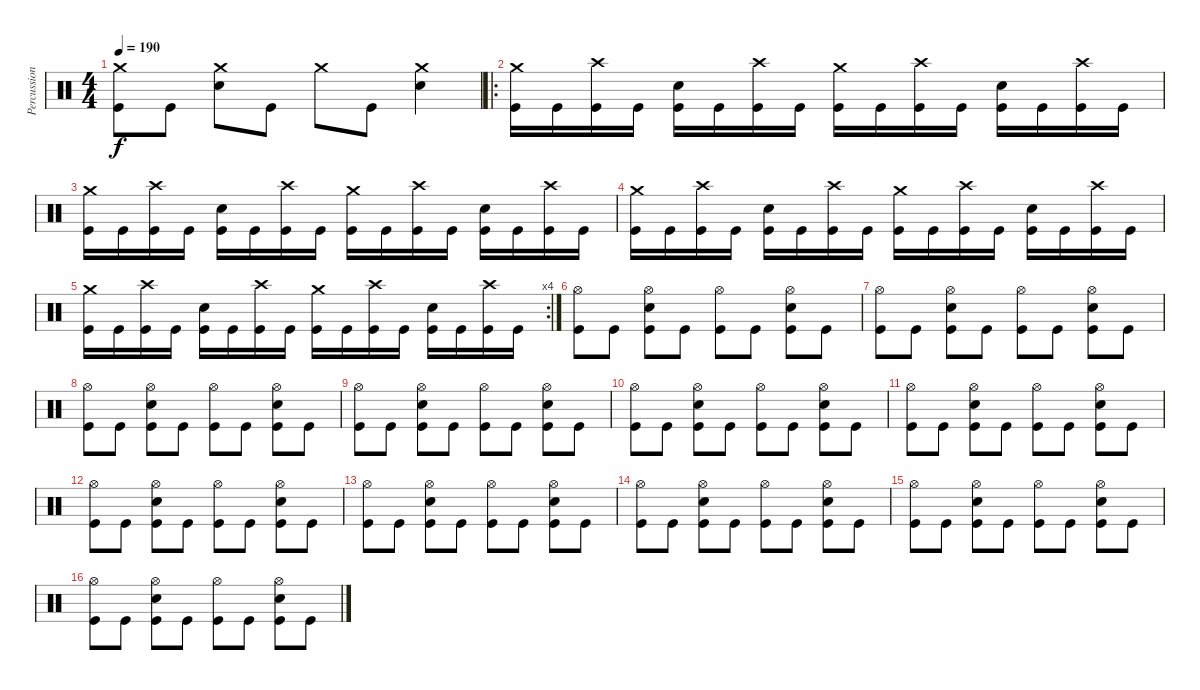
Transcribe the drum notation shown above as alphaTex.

\track ("Percussion" "Percussion") {instrument percussion}
\staff {score}
\articulation defaults
\ts (4 4)
\tempo 190
\clef neutral
\ks c
("Crash medium (hit)" "Kick (hit)").8{dy f} "Kick (hit)".8 ("Crash medium (hit)" "Snare (hit) 2").8 "Kick (hit)".8 "Crash medium (hit)".8 "Kick (hit)".8 ("Crash medium (hit)" "Snare (hit) 2").4 |
\ro
("Crash medium (hit)" "Kick (hit)").16 "Kick (hit)".16 ("Crash high (hit)" "Kick (hit)").16 "Kick (hit)".16 ("Snare (hit) 2" "Kick (hit)").16 "Kick (hit)".16 ("Crash high (hit)" "Kick (hit)").16 "Kick (hit)".16 ("Crash medium (hit)" "Kick (hit)").16 "Kick (hit)".16 ("Crash high (hit)" "Kick (hit)").16 "Kick (hit)".16 ("Snare (hit) 2" "Kick (hit)").16 "Kick (hit)".16 ("Crash high (hit)" "Kick (hit)").16 "Kick (hit)".16 |
("Crash medium (hit)" "Kick (hit)").16 "Kick (hit)".16 ("Crash high (hit)" "Kick (hit)").16 "Kick (hit)".16 ("Snare (hit) 2" "Kick (hit)").16 "Kick (hit)".16 ("Crash high (hit)" "Kick (hit)").16 "Kick (hit)".16 ("Crash medium (hit)" "Kick (hit)").16 "Kick (hit)".16 ("Crash high (hit)" "Kick (hit)").16 "Kick (hit)".16 ("Snare (hit) 2" "Kick (hit)").16 "Kick (hit)".16 ("Crash high (hit)" "Kick (hit)").16 "Kick (hit)".16 |
("Crash medium (hit)" "Kick (hit)").16 "Kick (hit)".16 ("Crash high (hit)" "Kick (hit)").16 "Kick (hit)".16 ("Snare (hit) 2" "Kick (hit)").16 "Kick (hit)".16 ("Crash high (hit)" "Kick (hit)").16 "Kick (hit)".16 ("Crash medium (hit)" "Kick (hit)").16 "Kick (hit)".16 ("Crash high (hit)" "Kick (hit)").16 "Kick (hit)".16 ("Snare (hit) 2" "Kick (hit)").16 "Kick (hit)".16 ("Crash high (hit)" "Kick (hit)").16 "Kick (hit)".16 |
\rc 4
("Crash medium (hit)" "Kick (hit)").16 "Kick (hit)".16 ("Crash high (hit)" "Kick (hit)").16 "Kick (hit)".16 ("Snare (hit) 2" "Kick (hit)").16 "Kick (hit)".16 ("Crash high (hit)" "Kick (hit)").16 "Kick (hit)".16 ("Crash medium (hit)" "Kick (hit)").16 "Kick (hit)".16 ("Crash high (hit)" "Kick (hit)").16 "Kick (hit)".16 ("Snare (hit) 2" "Kick (hit)").16 "Kick (hit)".16 ("Crash high (hit)" "Kick (hit)").16 "Kick (hit)".16 |
("Hi-Hat (open)" "Kick (hit)").8 "Kick (hit)".8 ("Hi-Hat (open)" "Snare (hit) 2" "Kick (hit)").8 "Kick (hit)".8 ("Hi-Hat (open)" "Kick (hit)").8 "Kick (hit)".8 ("Hi-Hat (open)" "Snare (hit) 2" "Kick (hit)").8 "Kick (hit)".8 |
("Hi-Hat (open)" "Kick (hit)").8 "Kick (hit)".8 ("Hi-Hat (open)" "Snare (hit) 2" "Kick (hit)").8 "Kick (hit)".8 ("Hi-Hat (open)" "Kick (hit)").8 "Kick (hit)".8 ("Hi-Hat (open)" "Snare (hit) 2" "Kick (hit)").8 "Kick (hit)".8 |
("Hi-Hat (open)" "Kick (hit)").8 "Kick (hit)".8 ("Hi-Hat (open)" "Snare (hit) 2" "Kick (hit)").8 "Kick (hit)".8 ("Hi-Hat (open)" "Kick (hit)").8 "Kick (hit)".8 ("Hi-Hat (open)" "Snare (hit) 2" "Kick (hit)").8 "Kick (hit)".8 |
("Hi-Hat (open)" "Kick (hit)").8 "Kick (hit)".8 ("Hi-Hat (open)" "Snare (hit) 2" "Kick (hit)").8 "Kick (hit)".8 ("Hi-Hat (open)" "Kick (hit)").8 "Kick (hit)".8 ("Hi-Hat (open)" "Snare (hit) 2" "Kick (hit)").8 "Kick (hit)".8 |
("Hi-Hat (open)" "Kick (hit)").8 "Kick (hit)".8 ("Hi-Hat (open)" "Snare (hit) 2" "Kick (hit)").8 "Kick (hit)".8 ("Hi-Hat (open)" "Kick (hit)").8 "Kick (hit)".8 ("Hi-Hat (open)" "Snare (hit) 2" "Kick (hit)").8 "Kick (hit)".8 |
("Hi-Hat (open)" "Kick (hit)").8 "Kick (hit)".8 ("Hi-Hat (open)" "Snare (hit) 2" "Kick (hit)").8 "Kick (hit)".8 ("Hi-Hat (open)" "Kick (hit)").8 "Kick (hit)".8 ("Hi-Hat (open)" "Snare (hit) 2" "Kick (hit)").8 "Kick (hit)".8 |
("Hi-Hat (open)" "Kick (hit)").8 "Kick (hit)".8 ("Hi-Hat (open)" "Snare (hit) 2" "Kick (hit)").8 "Kick (hit)".8 ("Hi-Hat (open)" "Kick (hit)").8 "Kick (hit)".8 ("Hi-Hat (open)" "Snare (hit) 2" "Kick (hit)").8 "Kick (hit)".8 |
("Hi-Hat (open)" "Kick (hit)").8 "Kick (hit)".8 ("Hi-Hat (open)" "Snare (hit) 2" "Kick (hit)").8 "Kick (hit)".8 ("Hi-Hat (open)" "Kick (hit)").8 "Kick (hit)".8 ("Hi-Hat (open)" "Snare (hit) 2" "Kick (hit)").8 "Kick (hit)".8 |
("Hi-Hat (open)" "Kick (hit)").8 "Kick (hit)".8 ("Hi-Hat (open)" "Snare (hit) 2" "Kick (hit)").8 "Kick (hit)".8 ("Hi-Hat (open)" "Kick (hit)").8 "Kick (hit)".8 ("Hi-Hat (open)" "Snare (hit) 2" "Kick (hit)").8 "Kick (hit)".8 |
("Hi-Hat (open)" "Kick (hit)").8 "Kick (hit)".8 ("Hi-Hat (open)" "Snare (hit) 2" "Kick (hit)").8 "Kick (hit)".8 ("Hi-Hat (open)" "Kick (hit)").8 "Kick (hit)".8 ("Hi-Hat (open)" "Snare (hit) 2" "Kick (hit)").8 "Kick (hit)".8 |
("Hi-Hat (open)" "Kick (hit)").8 "Kick (hit)".8 ("Hi-Hat (open)" "Snare (hit) 2" "Kick (hit)").8 "Kick (hit)".8 ("Hi-Hat (open)" "Kick (hit)").8 "Kick (hit)".8 ("Hi-Hat (open)" "Snare (hit) 2" "Kick (hit)").8 "Kick (hit)".8
